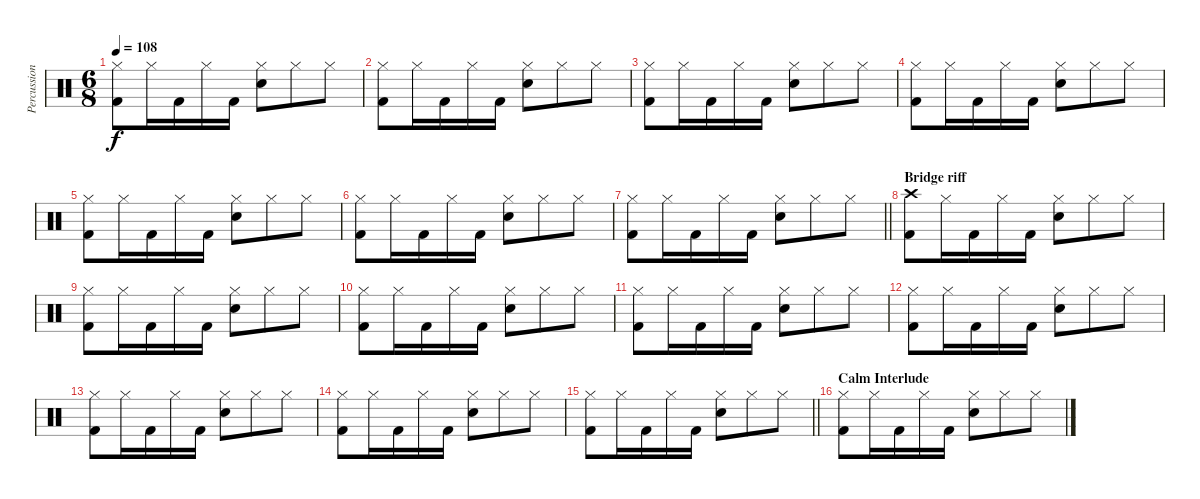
\track ("Percussions" "Percussion") {instrument percussion}
\staff {score}
\articulation defaults
\ts (6 8)
\tempo 108
\clef neutral
\ks c
("Hi-Hat (closed)" "Kick (hit) 2").8{dy f} "Hi-Hat (closed)".16 "Kick (hit) 2".16 "Hi-Hat (closed)".16 "Kick (hit) 2".16 ("Hi-Hat (closed)" "Electric Snare (hit)").8 "Hi-Hat (closed)".8 "Hi-Hat (closed)".8 |
("Hi-Hat (closed)" "Kick (hit) 2").8 "Hi-Hat (closed)".16 "Kick (hit) 2".16 "Hi-Hat (closed)".16 "Kick (hit) 2".16 ("Hi-Hat (closed)" "Electric Snare (hit)").8 "Hi-Hat (closed)".8 "Hi-Hat (closed)".8 |
("Hi-Hat (closed)" "Kick (hit) 2").8 "Hi-Hat (closed)".16 "Kick (hit) 2".16 "Hi-Hat (closed)".16 "Kick (hit) 2".16 ("Hi-Hat (closed)" "Electric Snare (hit)").8 "Hi-Hat (closed)".8 "Hi-Hat (closed)".8 |
("Hi-Hat (closed)" "Kick (hit) 2").8 "Hi-Hat (closed)".16 "Kick (hit) 2".16 "Hi-Hat (closed)".16 "Kick (hit) 2".16 ("Hi-Hat (closed)" "Electric Snare (hit)").8 "Hi-Hat (closed)".8 "Hi-Hat (closed)".8 |
("Hi-Hat (closed)" "Kick (hit) 2").8 "Hi-Hat (closed)".16 "Kick (hit) 2".16 "Hi-Hat (closed)".16 "Kick (hit) 2".16 ("Hi-Hat (closed)" "Electric Snare (hit)").8 "Hi-Hat (closed)".8 "Hi-Hat (closed)".8 |
("Hi-Hat (closed)" "Kick (hit) 2").8 "Hi-Hat (closed)".16 "Kick (hit) 2".16 "Hi-Hat (closed)".16 "Kick (hit) 2".16 ("Hi-Hat (closed)" "Electric Snare (hit)").8 "Hi-Hat (closed)".8 "Hi-Hat (closed)".8 |
\barLineRight lightlight
("Hi-Hat (closed)" "Kick (hit) 2").8 "Hi-Hat (closed)".16 "Kick (hit) 2".16 "Hi-Hat (closed)".16 "Kick (hit) 2".16 ("Hi-Hat (closed)" "Electric Snare (hit)").8 "Hi-Hat (closed)".8 "Hi-Hat (closed)".8 |
\section ("" "Bridge riff")
("Crash high (hit)" "Kick (hit) 2").8 "Hi-Hat (closed)".16 "Kick (hit) 2".16 "Hi-Hat (closed)".16 "Kick (hit) 2".16 ("Hi-Hat (closed)" "Electric Snare (hit)").8 "Hi-Hat (closed)".8 "Hi-Hat (closed)".8 |
("Hi-Hat (closed)" "Kick (hit) 2").8 "Hi-Hat (closed)".16 "Kick (hit) 2".16 "Hi-Hat (closed)".16 "Kick (hit) 2".16 ("Hi-Hat (closed)" "Electric Snare (hit)").8 "Hi-Hat (closed)".8 "Hi-Hat (closed)".8 |
("Hi-Hat (closed)" "Kick (hit) 2").8 "Hi-Hat (closed)".16 "Kick (hit) 2".16 "Hi-Hat (closed)".16 "Kick (hit) 2".16 ("Hi-Hat (closed)" "Electric Snare (hit)").8 "Hi-Hat (closed)".8 "Hi-Hat (closed)".8 |
("Hi-Hat (closed)" "Kick (hit) 2").8 "Hi-Hat (closed)".16 "Kick (hit) 2".16 "Hi-Hat (closed)".16 "Kick (hit) 2".16 ("Hi-Hat (closed)" "Electric Snare (hit)").8 "Hi-Hat (closed)".8 "Hi-Hat (closed)".8 |
("Hi-Hat (closed)" "Kick (hit) 2").8 "Hi-Hat (closed)".16 "Kick (hit) 2".16 "Hi-Hat (closed)".16 "Kick (hit) 2".16 ("Hi-Hat (closed)" "Electric Snare (hit)").8 "Hi-Hat (closed)".8 "Hi-Hat (closed)".8 |
("Hi-Hat (closed)" "Kick (hit) 2").8 "Hi-Hat (closed)".16 "Kick (hit) 2".16 "Hi-Hat (closed)".16 "Kick (hit) 2".16 ("Hi-Hat (closed)" "Electric Snare (hit)").8 "Hi-Hat (closed)".8 "Hi-Hat (closed)".8 |
("Hi-Hat (closed)" "Kick (hit) 2").8 "Hi-Hat (closed)".16 "Kick (hit) 2".16 "Hi-Hat (closed)".16 "Kick (hit) 2".16 ("Hi-Hat (closed)" "Electric Snare (hit)").8 "Hi-Hat (closed)".8 "Hi-Hat (closed)".8 |
\barLineRight lightlight
("Hi-Hat (closed)" "Kick (hit) 2").8 "Hi-Hat (closed)".16 "Kick (hit) 2".16 "Hi-Hat (closed)".16 "Kick (hit) 2".16 ("Hi-Hat (closed)" "Electric Snare (hit)").8 "Hi-Hat (closed)".8 "Hi-Hat (closed)".8 |
\section ("" "Calm Interlude")
("Hi-Hat (closed)" "Kick (hit) 2").8 "Hi-Hat (closed)".16 "Kick (hit) 2".16 "Hi-Hat (closed)".16 "Kick (hit) 2".16 ("Hi-Hat (closed)" "Electric Snare (hit)").8 "Hi-Hat (closed)".8 "Hi-Hat (closed)".8
